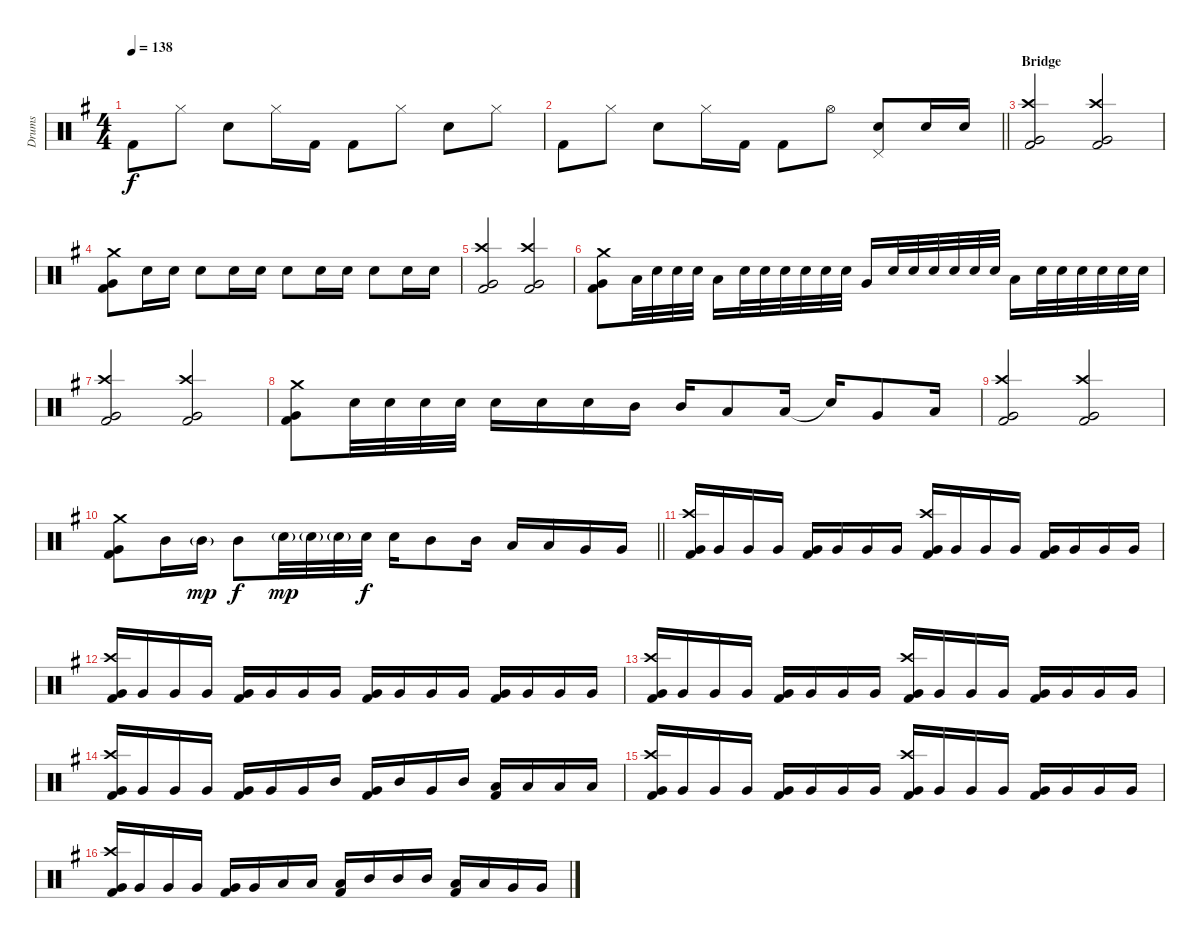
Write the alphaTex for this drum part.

\track ("Drums" "Drums") {instrument percussion}
\staff {score}
\articulation defaults
\ts (4 4)
\tempo 138
\clef neutral
\ks eminor "Kick (hit) 2".8{dy f} "Hi-Hat (closed)".8 "Electric Snare (hit)".8 "Hi-Hat (closed)".16 "Kick (hit) 2".16 "Kick (hit) 2".8 "Hi-Hat (closed)".8 "Electric Snare (hit)".8 "Hi-Hat (closed)".8
|
\barLineRight lightlight "Kick (hit) 2".8 "Hi-Hat (closed)".8 "Electric Snare (hit)".8 "Hi-Hat (closed)".16 "Kick (hit) 2".16 "Kick (hit) 2".8 "Hi-Hat (open)".8
("Electric Snare (hit)" "Pedal Hi-Hat (hit)").8 "Electric Snare (hit)".16 "Electric Snare (hit)".16 |
\section ("" "Bridge")
("Crash high (hit)" "Very Low Tom (hit)" "Kick (hit) 2").2 ("Crash high (hit)" "Very Low Tom (hit)" "Kick (hit) 2").2 |
("Crash medium (hit)" "Very Low Tom (hit)" "Kick (hit) 2").8 "Electric Snare (hit)".16 "Electric Snare (hit)".16 "Electric Snare (hit)".8 "Electric Snare (hit)".16 "Electric Snare (hit)".16 "Electric Snare (hit)".8 "Electric Snare (hit)".16 "Electric Snare (hit)".16 "Electric Snare (hit)".8 "Electric Snare (hit)".16 "Electric Snare (hit)".16 |
("Crash high (hit)" "Very Low Tom (hit)" "Kick (hit) 2").2 ("Crash high (hit)" "Very Low Tom (hit)" "Kick (hit) 2").2 |
("Crash medium (hit)" "Very Low Tom (hit)" "Kick (hit) 2").8 "Low Tom (hit)".32 "Electric Snare (hit)".32 "Electric Snare (hit)".32 "Electric Snare (hit)".32 "Low Tom (hit)".16 "Electric Snare (hit)".32 "Electric Snare (hit)".32 "Electric Snare (hit)".32 "Electric Snare (hit)".32 "Electric Snare (hit)".32 "Electric Snare (hit)".32 "Very Low Tom (hit)".16 "Electric Snare (hit)".32 "Electric Snare (hit)".32 "Electric Snare (hit)".32 "Electric Snare (hit)".32 "Electric Snare (hit)".32 "Electric Snare (hit)".32 "Low Tom (hit)".16 "Electric Snare (hit)".32 "Electric Snare (hit)".32 "Electric Snare (hit)".32 "Electric Snare (hit)".32 "Electric Snare (hit)".32 "Electric Snare (hit)".32 |
("Crash high (hit)" "Very Low Tom (hit)" "Kick (hit) 2").2 ("Crash high (hit)" "Very Low Tom (hit)" "Kick (hit) 2").2 |
("Crash medium (hit)" "Very Low Tom (hit)" "Kick (hit) 2").8 "Electric Snare (hit)".32 "Electric Snare (hit)".32 "Electric Snare (hit)".32 "Electric Snare (hit)".32 "Electric Snare (hit)".16 "Electric Snare (hit)".16 "Electric Snare (hit)".16 "Mid Tom (hit)".16 "Mid Tom (hit)".16 "Low Tom (hit)".8 "Low Tom (hit)".16 "Snare (hit)"{t}.16 "Very Low Tom (hit)".8 "Low Floor Tom (hit)".16 |
("Crash high (hit)" "Very Low Tom (hit)" "Kick (hit) 2").2 ("Crash high (hit)" "Very Low Tom (hit)" "Kick (hit) 2").2 |
\barLineRight lightlight
("Crash medium (hit)" "Very Low Tom (hit)" "Kick (hit) 2").8 "Mid Tom (hit)".16 "Mid Tom (hit)"{g}.16{dy mp} "Mid Tom (hit)".8{dy f} "Electric Snare (hit)"{g}.32{dy mp} "Electric Snare (hit)"{g}.32 "Electric Snare (hit)"{g}.32 "Electric Snare (hit)".32{dy f} "Electric Snare (hit)".16 "Mid Tom (hit)".8 "Mid Tom (hit)".16 "Low Tom (hit)".16 "Low Tom (hit)".16 "Very Low Tom (hit)".16 "Very Low Tom (hit)".16 |
\section ("" "")
("Crash high (hit)" "Very Low Tom (hit)" "Kick (hit) 2").16 "Very Low Tom (hit)".16 "Very Low Tom (hit)".16 "Very Low Tom (hit)".16 ("Very Low Tom (hit)" "Kick (hit) 2").16 "Very Low Tom (hit)".16 "Very Low Tom (hit)".16 "Very Low Tom (hit)".16 ("Crash high (hit)" "Very Low Tom (hit)" "Kick (hit) 2").16 "Very Low Tom (hit)".16 "Very Low Tom (hit)".16 "Very Low Tom (hit)".16 ("Very Low Tom (hit)" "Kick (hit) 2").16 "Very Low Tom (hit)".16 "Very Low Tom (hit)".16 "Very Low Tom (hit)".16 |
("Crash high (hit)" "Very Low Tom (hit)" "Kick (hit) 2").16 "Very Low Tom (hit)".16 "Very Low Tom (hit)".16 "Very Low Tom (hit)".16 ("Very Low Tom (hit)" "Kick (hit) 2").16 "Very Low Tom (hit)".16 "Very Low Tom (hit)".16 "Very Low Tom (hit)".16 ("Very Low Tom (hit)" "Kick (hit) 2").16 "Very Low Tom (hit)".16 "Very Low Tom (hit)".16 "Very Low Tom (hit)".16 ("Very Low Tom (hit)" "Kick (hit) 2").16 "Very Low Tom (hit)".16 "Very Low Tom (hit)".16 "Very Low Tom (hit)".16 |
("Crash high (hit)" "Very Low Tom (hit)" "Kick (hit) 2").16 "Very Low Tom (hit)".16 "Very Low Tom (hit)".16 "Very Low Tom (hit)".16 ("Very Low Tom (hit)" "Kick (hit) 2").16 "Very Low Tom (hit)".16 "Very Low Tom (hit)".16 "Very Low Tom (hit)".16 ("Crash high (hit)" "Very Low Tom (hit)" "Kick (hit) 2").16 "Very Low Tom (hit)".16 "Very Low Tom (hit)".16 "Very Low Tom (hit)".16 ("Very Low Tom (hit)" "Kick (hit) 2").16 "Very Low Tom (hit)".16 "Very Low Tom (hit)".16 "Very Low Tom (hit)".16 |
("Crash high (hit)" "Very Low Tom (hit)" "Kick (hit) 2").16 "Very Low Tom (hit)".16 "Very Low Tom (hit)".16 "Very Low Tom (hit)".16 ("Very Low Tom (hit)" "Kick (hit) 2").16 "Very Low Tom (hit)".16 "Very Low Tom (hit)".16 "Mid Tom (hit)".16 ("Very Low Tom (hit)" "Kick (hit) 2").16 "Mid Tom (hit)".16 "Very Low Tom (hit)".16 "Mid Tom (hit)".16 ("Low Tom (hit)" "Kick (hit) 2").16 "Low Tom (hit)".16 "Low Tom (hit)".16 "Low Tom (hit)".16 |
("Crash high (hit)" "Very Low Tom (hit)" "Kick (hit) 2").16 "Very Low Tom (hit)".16 "Very Low Tom (hit)".16 "Very Low Tom (hit)".16 ("Very Low Tom (hit)" "Kick (hit) 2").16 "Very Low Tom (hit)".16 "Very Low Tom (hit)".16 "Very Low Tom (hit)".16 ("Crash high (hit)" "Very Low Tom (hit)" "Kick (hit) 2").16 "Very Low Tom (hit)".16 "Very Low Tom (hit)".16 "Very Low Tom (hit)".16 ("Very Low Tom (hit)" "Kick (hit) 2").16 "Very Low Tom (hit)".16 "Very Low Tom (hit)".16 "Very Low Tom (hit)".16 |
("Crash high (hit)" "Very Low Tom (hit)" "Kick (hit) 2").16 "Very Low Tom (hit)".16 "Very Low Tom (hit)".16 "Very Low Tom (hit)".16 ("Very Low Tom (hit)" "Kick (hit) 2").16 "Very Low Tom (hit)".16 "Low Tom (hit)".16 "Low Tom (hit)".16 ("Low Tom (hit)" "Kick (hit) 2").16 "Mid Tom (hit)".16 "Mid Tom (hit)".16 "Mid Tom (hit)".16 ("Low Tom (hit)" "Kick (hit) 2").16 "Low Tom (hit)".16 "Very Low Tom (hit)".16 "Very Low Tom (hit)".16
